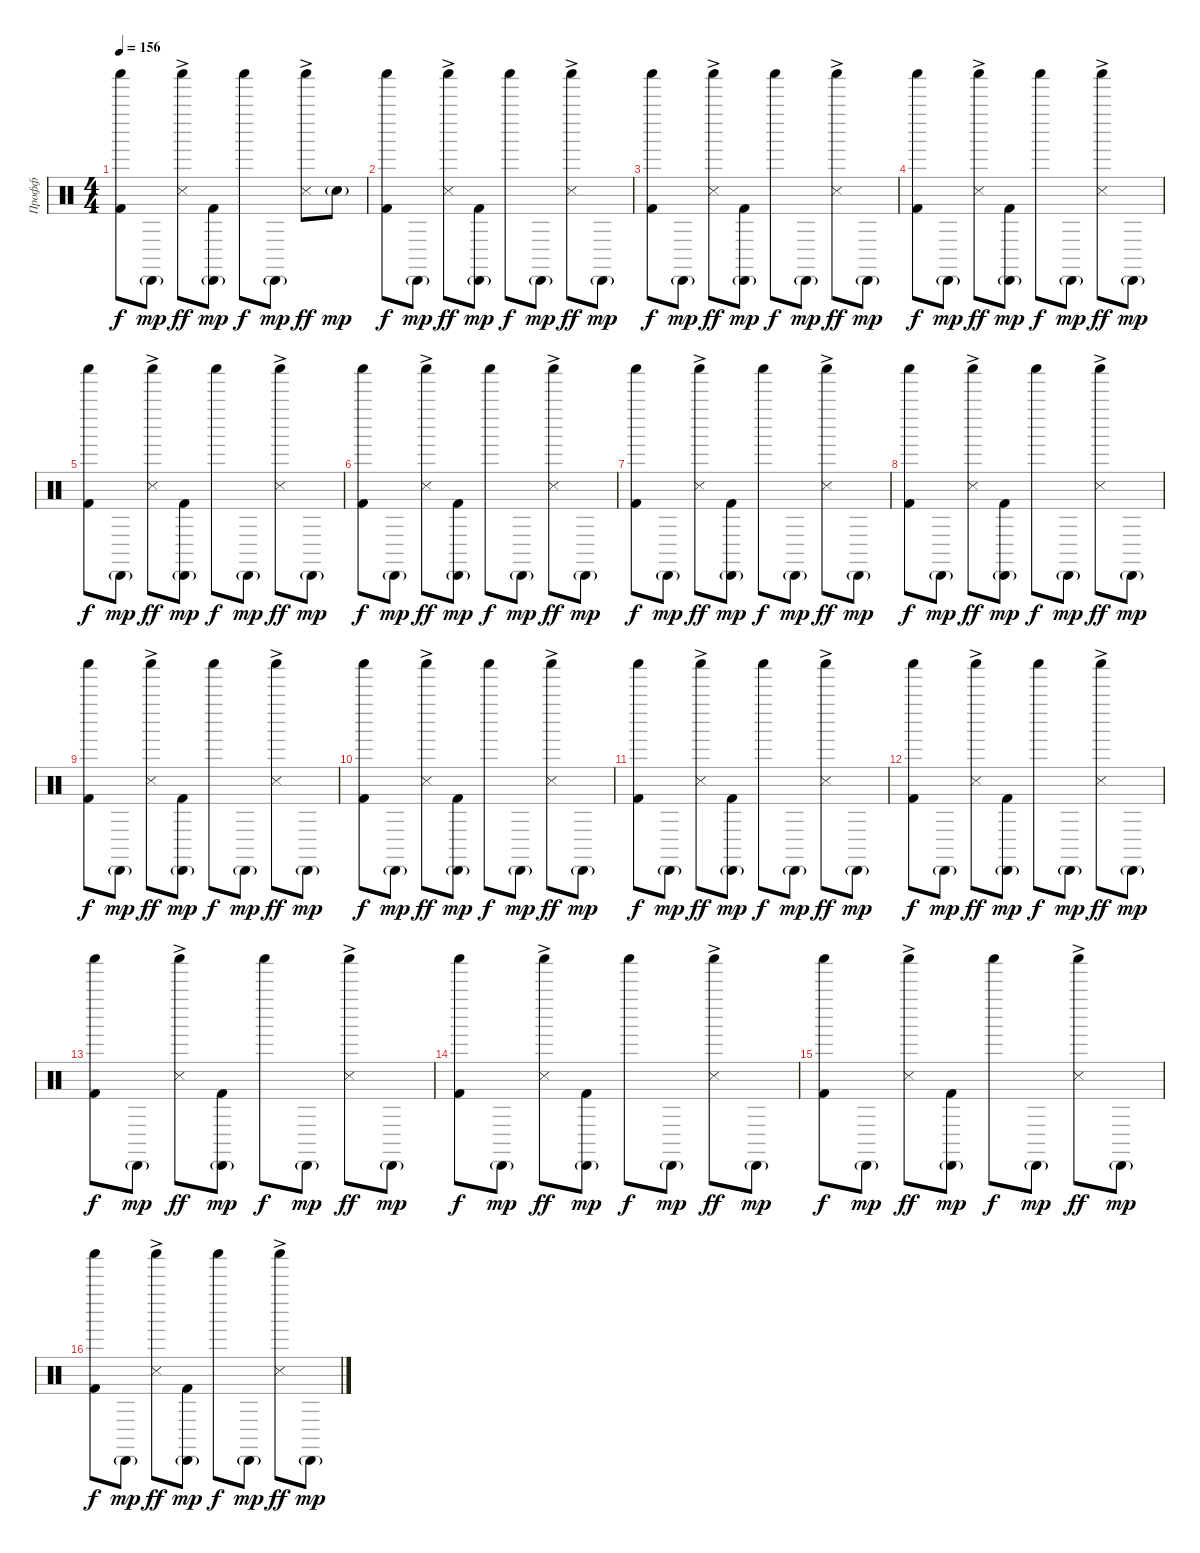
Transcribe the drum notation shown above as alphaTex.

\track ("Профф" "Профф") {instrument percussion}
\staff {score}
\articulation defaults
\ts (4 4)
\tempo 156
\clef neutral
\ks c
("Shaker (hit)" "Kick (hit) 2").8{dy f} "Cabasa (hit)"{g}.8{dy mp} ("Shaker (hit)"{ac} "Snare (side stick) 3").8{dy ff} ("Cabasa (hit)"{g} "Kick (hit) 2").8{dy mp} "Shaker (hit)".8{dy f} "Cabasa (hit)"{g}.8{dy mp} ("Shaker (hit)"{ac} "Snare (side stick) 3").8{dy ff} "Snare (hit)"{g}.8{dy mp} |
("Shaker (hit)" "Kick (hit) 2").8{dy f} "Cabasa (hit)"{g}.8{dy mp} ("Shaker (hit)"{ac} "Snare (side stick) 3").8{dy ff} ("Cabasa (hit)"{g} "Kick (hit) 2").8{dy mp} "Shaker (hit)".8{dy f} "Cabasa (hit)"{g}.8{dy mp} ("Shaker (hit)"{ac} "Snare (side stick) 3").8{dy ff} "Cabasa (hit)"{g}.8{dy mp} |
("Shaker (hit)" "Kick (hit) 2").8{dy f} "Cabasa (hit)"{g}.8{dy mp} ("Shaker (hit)"{ac} "Snare (side stick) 3").8{dy ff} ("Cabasa (hit)"{g} "Kick (hit) 2").8{dy mp} "Shaker (hit)".8{dy f} "Cabasa (hit)"{g}.8{dy mp} ("Shaker (hit)"{ac} "Snare (side stick) 3").8{dy ff} "Cabasa (hit)"{g}.8{dy mp} |
("Shaker (hit)" "Kick (hit) 2").8{dy f} "Cabasa (hit)"{g}.8{dy mp} ("Shaker (hit)"{ac} "Snare (side stick) 3").8{dy ff} ("Cabasa (hit)"{g} "Kick (hit) 2").8{dy mp} "Shaker (hit)".8{dy f} "Cabasa (hit)"{g}.8{dy mp} ("Shaker (hit)"{ac} "Snare (side stick) 3").8{dy ff} "Cabasa (hit)"{g}.8{dy mp} |
("Shaker (hit)" "Kick (hit) 2").8{dy f} "Cabasa (hit)"{g}.8{dy mp} ("Shaker (hit)"{ac} "Snare (side stick) 3").8{dy ff} ("Cabasa (hit)"{g} "Kick (hit) 2").8{dy mp} "Shaker (hit)".8{dy f} "Cabasa (hit)"{g}.8{dy mp} ("Shaker (hit)"{ac} "Snare (side stick) 3").8{dy ff} "Cabasa (hit)"{g}.8{dy mp} |
("Shaker (hit)" "Kick (hit) 2").8{dy f} "Cabasa (hit)"{g}.8{dy mp} ("Shaker (hit)"{ac} "Snare (side stick) 3").8{dy ff} ("Cabasa (hit)"{g} "Kick (hit) 2").8{dy mp} "Shaker (hit)".8{dy f} "Cabasa (hit)"{g}.8{dy mp} ("Shaker (hit)"{ac} "Snare (side stick) 3").8{dy ff} "Cabasa (hit)"{g}.8{dy mp} |
("Shaker (hit)" "Kick (hit) 2").8{dy f} "Cabasa (hit)"{g}.8{dy mp} ("Shaker (hit)"{ac} "Snare (side stick) 3").8{dy ff} ("Cabasa (hit)"{g} "Kick (hit) 2").8{dy mp} "Shaker (hit)".8{dy f} "Cabasa (hit)"{g}.8{dy mp} ("Shaker (hit)"{ac} "Snare (side stick) 3").8{dy ff} "Cabasa (hit)"{g}.8{dy mp} |
("Shaker (hit)" "Kick (hit) 2").8{dy f} "Cabasa (hit)"{g}.8{dy mp} ("Shaker (hit)"{ac} "Snare (side stick) 3").8{dy ff} ("Cabasa (hit)"{g} "Kick (hit) 2").8{dy mp} "Shaker (hit)".8{dy f} "Cabasa (hit)"{g}.8{dy mp} ("Shaker (hit)"{ac} "Snare (side stick) 3").8{dy ff} "Cabasa (hit)"{g}.8{dy mp} |
("Shaker (hit)" "Kick (hit) 2").8{dy f} "Cabasa (hit)"{g}.8{dy mp} ("Shaker (hit)"{ac} "Snare (side stick) 3").8{dy ff} ("Cabasa (hit)"{g} "Kick (hit) 2").8{dy mp} "Shaker (hit)".8{dy f} "Cabasa (hit)"{g}.8{dy mp} ("Shaker (hit)"{ac} "Snare (side stick) 3").8{dy ff} "Cabasa (hit)"{g}.8{dy mp} |
("Shaker (hit)" "Kick (hit) 2").8{dy f} "Cabasa (hit)"{g}.8{dy mp} ("Shaker (hit)"{ac} "Snare (side stick) 3").8{dy ff} ("Cabasa (hit)"{g} "Kick (hit) 2").8{dy mp} "Shaker (hit)".8{dy f} "Cabasa (hit)"{g}.8{dy mp} ("Shaker (hit)"{ac} "Snare (side stick) 3").8{dy ff} "Cabasa (hit)"{g}.8{dy mp} |
("Shaker (hit)" "Kick (hit) 2").8{dy f} "Cabasa (hit)"{g}.8{dy mp} ("Shaker (hit)"{ac} "Snare (side stick) 3").8{dy ff} ("Cabasa (hit)"{g} "Kick (hit) 2").8{dy mp} "Shaker (hit)".8{dy f} "Cabasa (hit)"{g}.8{dy mp} ("Shaker (hit)"{ac} "Snare (side stick) 3").8{dy ff} "Cabasa (hit)"{g}.8{dy mp} |
("Shaker (hit)" "Kick (hit) 2").8{dy f} "Cabasa (hit)"{g}.8{dy mp} ("Shaker (hit)"{ac} "Snare (side stick) 3").8{dy ff} ("Cabasa (hit)"{g} "Kick (hit) 2").8{dy mp} "Shaker (hit)".8{dy f} "Cabasa (hit)"{g}.8{dy mp} ("Shaker (hit)"{ac} "Snare (side stick) 3").8{dy ff} "Cabasa (hit)"{g}.8{dy mp} |
("Shaker (hit)" "Kick (hit) 2").8{dy f} "Cabasa (hit)"{g}.8{dy mp} ("Shaker (hit)"{ac} "Snare (side stick) 3").8{dy ff} ("Cabasa (hit)"{g} "Kick (hit) 2").8{dy mp} "Shaker (hit)".8{dy f} "Cabasa (hit)"{g}.8{dy mp} ("Shaker (hit)"{ac} "Snare (side stick) 3").8{dy ff} "Cabasa (hit)"{g}.8{dy mp} |
("Shaker (hit)" "Kick (hit) 2").8{dy f} "Cabasa (hit)"{g}.8{dy mp} ("Shaker (hit)"{ac} "Snare (side stick) 3").8{dy ff} ("Cabasa (hit)"{g} "Kick (hit) 2").8{dy mp} "Shaker (hit)".8{dy f} "Cabasa (hit)"{g}.8{dy mp} ("Shaker (hit)"{ac} "Snare (side stick) 3").8{dy ff} "Cabasa (hit)"{g}.8{dy mp} |
("Shaker (hit)" "Kick (hit) 2").8{dy f} "Cabasa (hit)"{g}.8{dy mp} ("Shaker (hit)"{ac} "Snare (side stick) 3").8{dy ff} ("Cabasa (hit)"{g} "Kick (hit) 2").8{dy mp} "Shaker (hit)".8{dy f} "Cabasa (hit)"{g}.8{dy mp} ("Shaker (hit)"{ac} "Snare (side stick) 3").8{dy ff} "Cabasa (hit)"{g}.8{dy mp} |
("Shaker (hit)" "Kick (hit) 2").8{dy f} "Cabasa (hit)"{g}.8{dy mp} ("Shaker (hit)"{ac} "Snare (side stick) 3").8{dy ff} ("Cabasa (hit)"{g} "Kick (hit) 2").8{dy mp} "Shaker (hit)".8{dy f} "Cabasa (hit)"{g}.8{dy mp} ("Shaker (hit)"{ac} "Snare (side stick) 3").8{dy ff} "Cabasa (hit)"{g}.8{dy mp}
